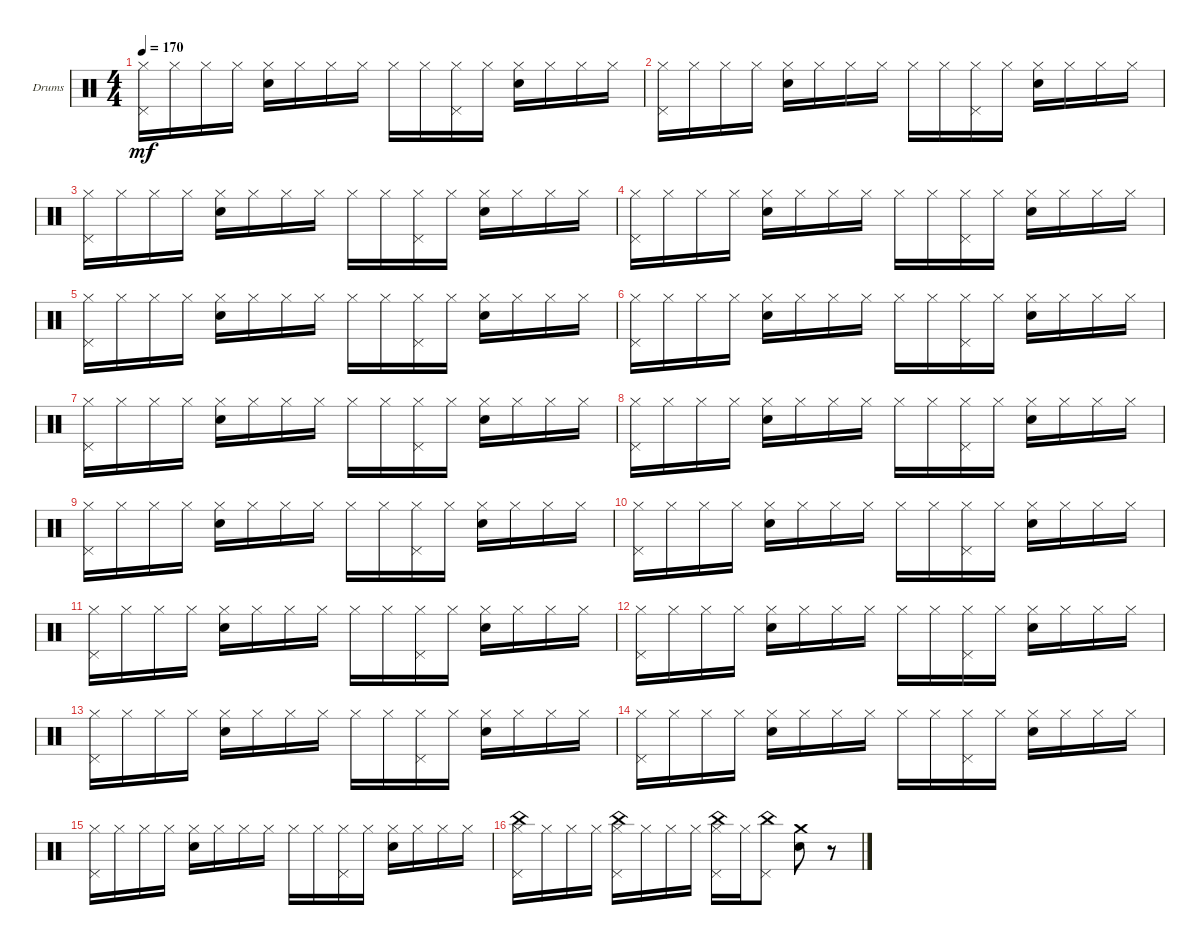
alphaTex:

\defaultSystemsLayout 4
\bracketExtendMode groupsimilarinstruments
\firstSystemTrackNameOrientation horizontal
\otherSystemsTrackNameOrientation horizontal
\track ("Drumkit" "Drums") {instrument percussion}
\staff {score}
\articulation defaults
\ts (4 4)
\tempo 170
\clef neutral
\scale
0.333333
\ks c
("Hi-Hat (closed)" "Pedal Hi-Hat (hit)").16{dy mf} "Hi-Hat (closed)".16 "Hi-Hat (closed)".16 "Hi-Hat (closed)".16 ("Hi-Hat (closed)" "Snare (hit) 2").16 "Hi-Hat (closed)".16 "Hi-Hat (closed)".16 "Hi-Hat (closed)".16 "Hi-Hat (closed)".16 "Hi-Hat (closed)".16 ("Hi-Hat (closed)" "Pedal Hi-Hat (hit)").16 "Hi-Hat (closed)".16 ("Hi-Hat (closed)" "Snare (hit) 2").16 "Hi-Hat (closed)".16 "Hi-Hat (closed)".16 "Hi-Hat (closed)".16 |
\scale
0.333333 ("Hi-Hat (closed)" "Pedal Hi-Hat (hit)").16 "Hi-Hat (closed)".16 "Hi-Hat (closed)".16 "Hi-Hat (closed)".16 ("Hi-Hat (closed)" "Snare (hit) 2").16 "Hi-Hat (closed)".16 "Hi-Hat (closed)".16 "Hi-Hat (closed)".16 "Hi-Hat (closed)".16 "Hi-Hat (closed)".16 ("Hi-Hat (closed)" "Pedal Hi-Hat (hit)").16 "Hi-Hat (closed)".16 ("Hi-Hat (closed)" "Snare (hit) 2").16 "Hi-Hat (closed)".16 "Hi-Hat (closed)".16 "Hi-Hat (closed)".16 |
\scale
0.333333 ("Hi-Hat (closed)" "Pedal Hi-Hat (hit)").16 "Hi-Hat (closed)".16 "Hi-Hat (closed)".16 "Hi-Hat (closed)".16 ("Hi-Hat (closed)" "Snare (hit) 2").16 "Hi-Hat (closed)".16 "Hi-Hat (closed)".16 "Hi-Hat (closed)".16 "Hi-Hat (closed)".16 "Hi-Hat (closed)".16 ("Hi-Hat (closed)" "Pedal Hi-Hat (hit)").16 "Hi-Hat (closed)".16 ("Hi-Hat (closed)" "Snare (hit) 2").16 "Hi-Hat (closed)".16 "Hi-Hat (closed)".16 "Hi-Hat (closed)".16 |
\scale
0.333333 ("Hi-Hat (closed)" "Pedal Hi-Hat (hit)").16 "Hi-Hat (closed)".16 "Hi-Hat (closed)".16 "Hi-Hat (closed)".16 ("Hi-Hat (closed)" "Snare (hit) 2").16 "Hi-Hat (closed)".16 "Hi-Hat (closed)".16 "Hi-Hat (closed)".16 "Hi-Hat (closed)".16 "Hi-Hat (closed)".16 ("Hi-Hat (closed)" "Pedal Hi-Hat (hit)").16 "Hi-Hat (closed)".16 ("Hi-Hat (closed)" "Snare (hit) 2").16 "Hi-Hat (closed)".16 "Hi-Hat (closed)".16 "Hi-Hat (closed)".16 |
\scale
0.333333 ("Hi-Hat (closed)" "Pedal Hi-Hat (hit)").16 "Hi-Hat (closed)".16 "Hi-Hat (closed)".16 "Hi-Hat (closed)".16 ("Hi-Hat (closed)" "Snare (hit) 2").16 "Hi-Hat (closed)".16 "Hi-Hat (closed)".16 "Hi-Hat (closed)".16 "Hi-Hat (closed)".16 "Hi-Hat (closed)".16 ("Hi-Hat (closed)" "Pedal Hi-Hat (hit)").16 "Hi-Hat (closed)".16 ("Hi-Hat (closed)" "Snare (hit) 2").16 "Hi-Hat (closed)".16 "Hi-Hat (closed)".16 "Hi-Hat (closed)".16 |
\scale
0.333333 ("Hi-Hat (closed)" "Pedal Hi-Hat (hit)").16 "Hi-Hat (closed)".16 "Hi-Hat (closed)".16 "Hi-Hat (closed)".16 ("Hi-Hat (closed)" "Snare (hit) 2").16 "Hi-Hat (closed)".16 "Hi-Hat (closed)".16 "Hi-Hat (closed)".16 "Hi-Hat (closed)".16 "Hi-Hat (closed)".16 ("Hi-Hat (closed)" "Pedal Hi-Hat (hit)").16 "Hi-Hat (closed)".16 ("Hi-Hat (closed)" "Snare (hit) 2").16 "Hi-Hat (closed)".16 "Hi-Hat (closed)".16 "Hi-Hat (closed)".16 |
\scale
0.333333 ("Hi-Hat (closed)" "Pedal Hi-Hat (hit)").16 "Hi-Hat (closed)".16 "Hi-Hat (closed)".16 "Hi-Hat (closed)".16 ("Hi-Hat (closed)" "Snare (hit) 2").16 "Hi-Hat (closed)".16 "Hi-Hat (closed)".16 "Hi-Hat (closed)".16 "Hi-Hat (closed)".16 "Hi-Hat (closed)".16 ("Hi-Hat (closed)" "Pedal Hi-Hat (hit)").16 "Hi-Hat (closed)".16 ("Hi-Hat (closed)" "Snare (hit) 2").16 "Hi-Hat (closed)".16 "Hi-Hat (closed)".16 "Hi-Hat (closed)".16 |
\scale
0.333333 ("Hi-Hat (closed)" "Pedal Hi-Hat (hit)").16 "Hi-Hat (closed)".16 "Hi-Hat (closed)".16 "Hi-Hat (closed)".16 ("Hi-Hat (closed)" "Snare (hit) 2").16 "Hi-Hat (closed)".16 "Hi-Hat (closed)".16 "Hi-Hat (closed)".16 "Hi-Hat (closed)".16 "Hi-Hat (closed)".16 ("Hi-Hat (closed)" "Pedal Hi-Hat (hit)").16 "Hi-Hat (closed)".16 ("Hi-Hat (closed)" "Snare (hit) 2").16 "Hi-Hat (closed)".16 "Hi-Hat (closed)".16 "Hi-Hat (closed)".16 |
("Hi-Hat (closed)" "Pedal Hi-Hat (hit)").16 "Hi-Hat (closed)".16 "Hi-Hat (closed)".16 "Hi-Hat (closed)".16 ("Hi-Hat (closed)" "Snare (hit) 2").16 "Hi-Hat (closed)".16 "Hi-Hat (closed)".16 "Hi-Hat (closed)".16 "Hi-Hat (closed)".16 "Hi-Hat (closed)".16 ("Hi-Hat (closed)" "Pedal Hi-Hat (hit)").16 "Hi-Hat (closed)".16 ("Hi-Hat (closed)" "Snare (hit) 2").16 "Hi-Hat (closed)".16 "Hi-Hat (closed)".16 "Hi-Hat (closed)".16 |
\scale
0.333333 ("Hi-Hat (closed)" "Pedal Hi-Hat (hit)").16 "Hi-Hat (closed)".16 "Hi-Hat (closed)".16 "Hi-Hat (closed)".16 ("Hi-Hat (closed)" "Snare (hit) 2").16 "Hi-Hat (closed)".16 "Hi-Hat (closed)".16 "Hi-Hat (closed)".16 "Hi-Hat (closed)".16 "Hi-Hat (closed)".16 ("Hi-Hat (closed)" "Pedal Hi-Hat (hit)").16 "Hi-Hat (closed)".16 ("Hi-Hat (closed)" "Snare (hit) 2").16 "Hi-Hat (closed)".16 "Hi-Hat (closed)".16 "Hi-Hat (closed)".16 |
\scale
0.333333 ("Hi-Hat (closed)" "Pedal Hi-Hat (hit)").16 "Hi-Hat (closed)".16 "Hi-Hat (closed)".16 "Hi-Hat (closed)".16 ("Hi-Hat (closed)" "Snare (hit) 2").16 "Hi-Hat (closed)".16 "Hi-Hat (closed)".16 "Hi-Hat (closed)".16 "Hi-Hat (closed)".16 "Hi-Hat (closed)".16 ("Hi-Hat (closed)" "Pedal Hi-Hat (hit)").16 "Hi-Hat (closed)".16 ("Hi-Hat (closed)" "Snare (hit) 2").16 "Hi-Hat (closed)".16 "Hi-Hat (closed)".16 "Hi-Hat (closed)".16 |
\scale
0.333333 ("Hi-Hat (closed)" "Pedal Hi-Hat (hit)").16 "Hi-Hat (closed)".16 "Hi-Hat (closed)".16 "Hi-Hat (closed)".16 ("Hi-Hat (closed)" "Snare (hit) 2").16 "Hi-Hat (closed)".16 "Hi-Hat (closed)".16 "Hi-Hat (closed)".16 "Hi-Hat (closed)".16 "Hi-Hat (closed)".16 ("Hi-Hat (closed)" "Pedal Hi-Hat (hit)").16 "Hi-Hat (closed)".16 ("Hi-Hat (closed)" "Snare (hit) 2").16 "Hi-Hat (closed)".16 "Hi-Hat (closed)".16 "Hi-Hat (closed)".16 |
\scale
0.333333 ("Hi-Hat (closed)" "Pedal Hi-Hat (hit)").16 "Hi-Hat (closed)".16 "Hi-Hat (closed)".16 "Hi-Hat (closed)".16 ("Hi-Hat (closed)" "Snare (hit) 2").16 "Hi-Hat (closed)".16 "Hi-Hat (closed)".16 "Hi-Hat (closed)".16 "Hi-Hat (closed)".16 "Hi-Hat (closed)".16 ("Hi-Hat (closed)" "Pedal Hi-Hat (hit)").16 "Hi-Hat (closed)".16 ("Hi-Hat (closed)" "Snare (hit) 2").16 "Hi-Hat (closed)".16 "Hi-Hat (closed)".16 "Hi-Hat (closed)".16 |
\scale
0.333333 ("Hi-Hat (closed)" "Pedal Hi-Hat (hit)").16 "Hi-Hat (closed)".16 "Hi-Hat (closed)".16 "Hi-Hat (closed)".16 ("Hi-Hat (closed)" "Snare (hit) 2").16 "Hi-Hat (closed)".16 "Hi-Hat (closed)".16 "Hi-Hat (closed)".16 "Hi-Hat (closed)".16 "Hi-Hat (closed)".16 ("Hi-Hat (closed)" "Pedal Hi-Hat (hit)").16 "Hi-Hat (closed)".16 ("Hi-Hat (closed)" "Snare (hit) 2").16 "Hi-Hat (closed)".16 "Hi-Hat (closed)".16 "Hi-Hat (closed)".16 |
\scale
0.333333 ("Hi-Hat (closed)" "Pedal Hi-Hat (hit)").16 "Hi-Hat (closed)".16 "Hi-Hat (closed)".16 "Hi-Hat (closed)".16 ("Hi-Hat (closed)" "Snare (hit) 2").16 "Hi-Hat (closed)".16 "Hi-Hat (closed)".16 "Hi-Hat (closed)".16 "Hi-Hat (closed)".16 "Hi-Hat (closed)".16 ("Hi-Hat (closed)" "Pedal Hi-Hat (hit)").16 "Hi-Hat (closed)".16 ("Hi-Hat (closed)" "Snare (hit) 2").16 "Hi-Hat (closed)".16 "Hi-Hat (closed)".16 "Hi-Hat (closed)".16 |
\scale
0.333333 ("Hi-Hat (closed)" "Pedal Hi-Hat (hit)" "China (hit)").16 "Hi-Hat (closed)".16 "Hi-Hat (closed)".16 "Hi-Hat (closed)".16 ("Hi-Hat (closed)" "Pedal Hi-Hat (hit)" "China (hit)").16 "Hi-Hat (closed)".16 "Hi-Hat (closed)".16 "Hi-Hat (closed)".16 ("Hi-Hat (closed)" "Pedal Hi-Hat (hit)" "China (hit)").16 "Hi-Hat (closed)".16 ("Pedal Hi-Hat (hit)" "China (hit)").8 ("Snare (hit) 2" "Crash medium (hit)").8 r.8
